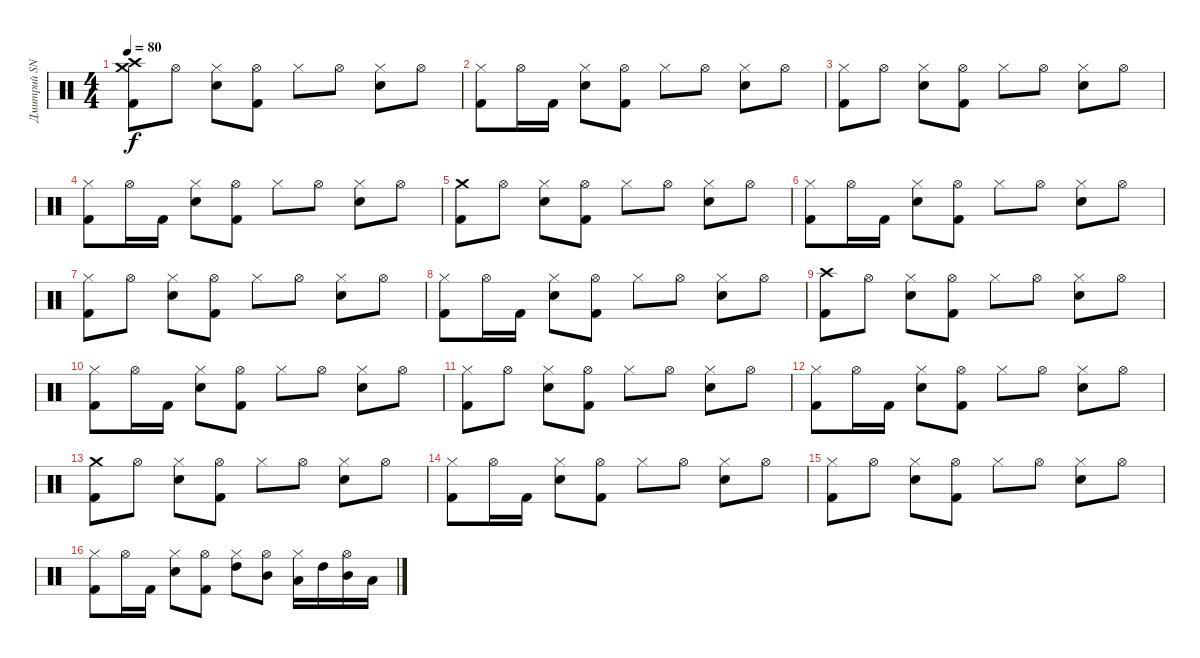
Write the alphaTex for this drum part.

\track ("Дмитрий SNAKE Хакимов" "Дмитрий SN") {instrument percussion}
\staff {score}
\articulation defaults
\ts (4 4)
\tempo 80
\clef neutral
\ks c
("Crash high (hit)" "Crash medium (hit)" "Kick (hit) 2").8{dy f} "Hi-Hat (open)".8 ("Hi-Hat (closed)" "Electric Snare (hit)").8 ("Hi-Hat (open)" "Kick (hit) 2").8 "Hi-Hat (closed)".8 "Hi-Hat (open)".8 ("Hi-Hat (closed)" "Electric Snare (hit)").8 "Hi-Hat (open)".8 |
("Hi-Hat (closed)" "Kick (hit) 2").8 "Hi-Hat (open)".16 "Kick (hit) 2".16 ("Hi-Hat (closed)" "Electric Snare (hit)").8 ("Hi-Hat (open)" "Kick (hit) 2").8 "Hi-Hat (closed)".8 "Hi-Hat (open)".8 ("Hi-Hat (closed)" "Electric Snare (hit)").8 "Hi-Hat (open)".8 |
("Hi-Hat (closed)" "Kick (hit) 2").8 "Hi-Hat (open)".8 ("Hi-Hat (closed)" "Electric Snare (hit)").8 ("Hi-Hat (open)" "Kick (hit) 2").8 "Hi-Hat (closed)".8 "Hi-Hat (open)".8 ("Hi-Hat (closed)" "Electric Snare (hit)").8 "Hi-Hat (open)".8 |
("Hi-Hat (closed)" "Kick (hit) 2").8 "Hi-Hat (open)".16 "Kick (hit) 2".16 ("Hi-Hat (closed)" "Electric Snare (hit)").8 ("Hi-Hat (open)" "Kick (hit) 2").8 "Hi-Hat (closed)".8 "Hi-Hat (open)".8 ("Hi-Hat (closed)" "Electric Snare (hit)").8 "Hi-Hat (open)".8 |
("Crash medium (hit)" "Kick (hit) 2").8 "Hi-Hat (open)".8 ("Hi-Hat (closed)" "Electric Snare (hit)").8 ("Hi-Hat (open)" "Kick (hit) 2").8 "Hi-Hat (closed)".8 "Hi-Hat (open)".8 ("Hi-Hat (closed)" "Electric Snare (hit)").8 "Hi-Hat (open)".8 |
("Hi-Hat (closed)" "Kick (hit) 2").8 "Hi-Hat (open)".16 "Kick (hit) 2".16 ("Hi-Hat (closed)" "Electric Snare (hit)").8 ("Hi-Hat (open)" "Kick (hit) 2").8 "Hi-Hat (closed)".8 "Hi-Hat (open)".8 ("Hi-Hat (closed)" "Electric Snare (hit)").8 "Hi-Hat (open)".8 |
("Hi-Hat (closed)" "Kick (hit) 2").8 "Hi-Hat (open)".8 ("Hi-Hat (closed)" "Electric Snare (hit)").8 ("Hi-Hat (open)" "Kick (hit) 2").8 "Hi-Hat (closed)".8 "Hi-Hat (open)".8 ("Hi-Hat (closed)" "Electric Snare (hit)").8 "Hi-Hat (open)".8 |
("Hi-Hat (closed)" "Kick (hit) 2").8 "Hi-Hat (open)".16 "Kick (hit) 2".16 ("Hi-Hat (closed)" "Electric Snare (hit)").8 ("Hi-Hat (open)" "Kick (hit) 2").8 "Hi-Hat (closed)".8 "Hi-Hat (open)".8 ("Hi-Hat (closed)" "Electric Snare (hit)").8 "Hi-Hat (open)".8 |
("Crash high (hit)" "Kick (hit) 2").8 "Hi-Hat (open)".8 ("Hi-Hat (closed)" "Electric Snare (hit)").8 ("Hi-Hat (open)" "Kick (hit) 2").8 "Hi-Hat (closed)".8 "Hi-Hat (open)".8 ("Hi-Hat (closed)" "Electric Snare (hit)").8 "Hi-Hat (open)".8 |
("Hi-Hat (closed)" "Kick (hit) 2").8 "Hi-Hat (open)".16 "Kick (hit) 2".16 ("Hi-Hat (closed)" "Electric Snare (hit)").8 ("Hi-Hat (open)" "Kick (hit) 2").8 "Hi-Hat (closed)".8 "Hi-Hat (open)".8 ("Hi-Hat (closed)" "Electric Snare (hit)").8 "Hi-Hat (open)".8 |
("Hi-Hat (closed)" "Kick (hit) 2").8 "Hi-Hat (open)".8 ("Hi-Hat (closed)" "Electric Snare (hit)").8 ("Hi-Hat (open)" "Kick (hit) 2").8 "Hi-Hat (closed)".8 "Hi-Hat (open)".8 ("Hi-Hat (closed)" "Electric Snare (hit)").8 "Hi-Hat (open)".8 |
("Hi-Hat (closed)" "Kick (hit) 2").8 "Hi-Hat (open)".16 "Kick (hit) 2".16 ("Hi-Hat (closed)" "Electric Snare (hit)").8 ("Hi-Hat (open)" "Kick (hit) 2").8 "Hi-Hat (closed)".8 "Hi-Hat (open)".8 ("Hi-Hat (closed)" "Electric Snare (hit)").8 "Hi-Hat (open)".8 |
("Crash medium (hit)" "Kick (hit) 2").8 "Hi-Hat (open)".8 ("Hi-Hat (closed)" "Electric Snare (hit)").8 ("Hi-Hat (open)" "Kick (hit) 2").8 "Hi-Hat (closed)".8 "Hi-Hat (open)".8 ("Hi-Hat (closed)" "Electric Snare (hit)").8 "Hi-Hat (open)".8 |
("Hi-Hat (closed)" "Kick (hit) 2").8 "Hi-Hat (open)".16 "Kick (hit) 2".16 ("Hi-Hat (closed)" "Electric Snare (hit)").8 ("Hi-Hat (open)" "Kick (hit) 2").8 "Hi-Hat (closed)".8 "Hi-Hat (open)".8 ("Hi-Hat (closed)" "Electric Snare (hit)").8 "Hi-Hat (open)".8 |
("Hi-Hat (closed)" "Kick (hit) 2").8 "Hi-Hat (open)".8 ("Hi-Hat (closed)" "Electric Snare (hit)").8 ("Hi-Hat (open)" "Kick (hit) 2").8 "Hi-Hat (closed)".8 "Hi-Hat (open)".8 ("Hi-Hat (closed)" "Electric Snare (hit)").8 "Hi-Hat (open)".8 |
("Hi-Hat (closed)" "Kick (hit) 2").8 "Hi-Hat (open)".16 "Kick (hit) 2".16 ("Hi-Hat (closed)" "Electric Snare (hit)").8 ("Hi-Hat (open)" "Kick (hit) 2").8 ("Hi-Hat (closed)" "High Tom (hit)").8 ("Hi-Hat (open)" "Mid Tom (hit)").8 ("Hi-Hat (closed)" "Low Tom (hit)").16 "High Tom (hit)".16 ("Hi-Hat (open)" "Mid Tom (hit)").16 "Low Tom (hit)".16
